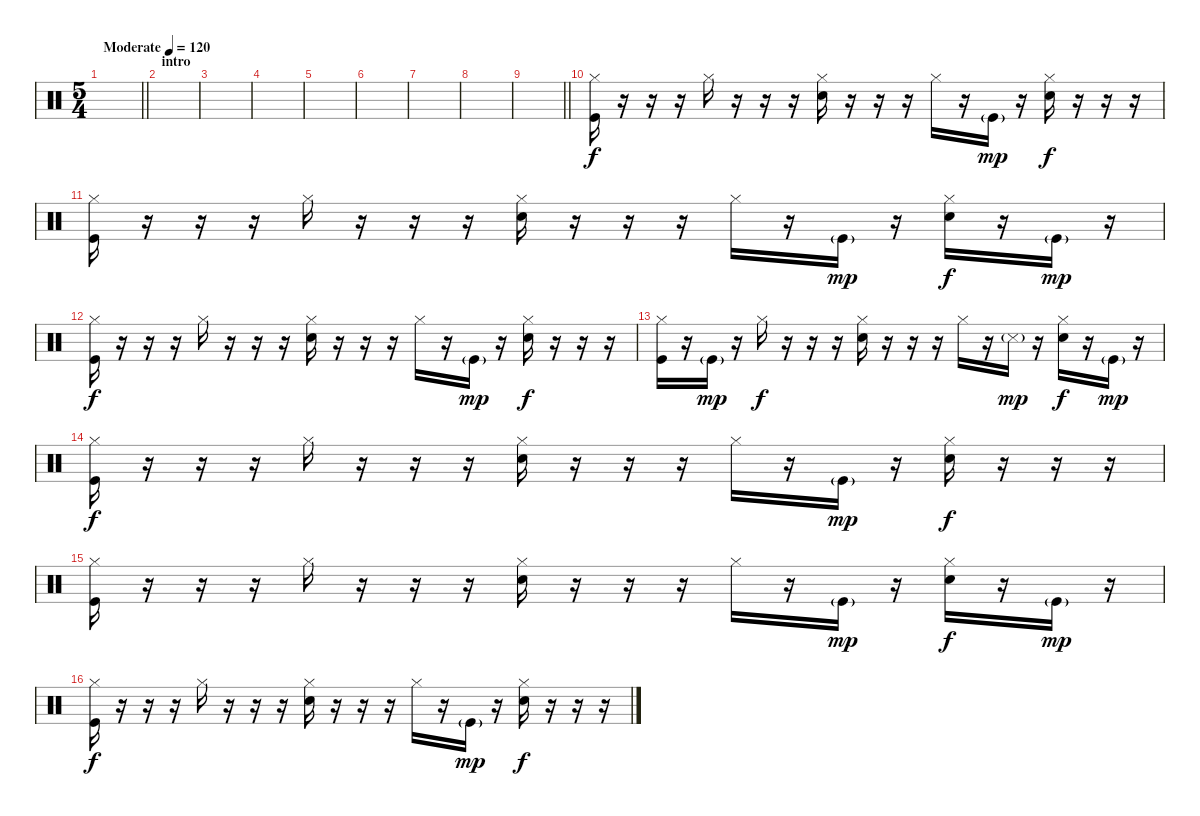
\track "" {instrument percussion}
\staff {score}
\articulation defaults
\ts (5 4)
\tempo (120 "Moderate")
\clef neutral
\barLineRight lightlight
\ks c
|
\section ("" "intro")
|
|
|
|
|
|
|
\barLineRight lightlight
|
("Kick (hit)" "Hi-Hat (closed)").16 r.16 r.16 r.16 "Hi-Hat (closed)".16 r.16 r.16 r.16 ("Snare (hit) 2" "Hi-Hat (closed)").16 r.16 r.16 r.16 "Hi-Hat (closed)".16 r.16 "Kick (hit)"{g}.16{dy mp} r.16 ("Snare (hit) 2" "Hi-Hat (closed)").16{dy f} r.16 r.16 r.16 |
("Kick (hit)" "Hi-Hat (closed)").16 r.16 r.16 r.16 "Hi-Hat (closed)".16 r.16 r.16 r.16 ("Snare (hit) 2" "Hi-Hat (closed)").16 r.16 r.16 r.16 "Hi-Hat (closed)".16 r.16 "Kick (hit)"{g}.16{dy mp} r.16 ("Snare (hit) 2" "Hi-Hat (closed)").16{dy f} r.16 "Kick (hit)"{g}.16{dy mp} r.16 |
("Kick (hit)" "Hi-Hat (closed)").16{dy f} r.16 r.16 r.16 "Hi-Hat (closed)".16 r.16 r.16 r.16 ("Snare (hit) 2" "Hi-Hat (closed)").16 r.16 r.16 r.16 "Hi-Hat (closed)".16 r.16 "Kick (hit)"{g}.16{dy mp} r.16 ("Snare (hit) 2" "Hi-Hat (closed)").16{dy f} r.16 r.16 r.16 |
("Kick (hit)" "Hi-Hat (closed)").16 r.16 "Kick (hit)"{g}.16{dy mp} r.16 "Hi-Hat (closed)".16{dy f} r.16 r.16 r.16 ("Snare (hit) 2" "Hi-Hat (closed)").16 r.16 r.16 r.16 "Hi-Hat (closed)".16 r.16 "Snare (side stick) 3"{g}.16{dy mp} r.16 ("Snare (hit) 2" "Hi-Hat (closed)").16{dy f} r.16 "Kick (hit)"{g}.16{dy mp} r.16 |
("Kick (hit)" "Hi-Hat (closed)").16{dy f} r.16 r.16 r.16 "Hi-Hat (closed)".16 r.16 r.16 r.16 ("Snare (hit) 2" "Hi-Hat (closed)").16 r.16 r.16 r.16 "Hi-Hat (closed)".16 r.16 "Kick (hit)"{g}.16{dy mp} r.16 ("Snare (hit) 2" "Hi-Hat (closed)").16{dy f} r.16 r.16 r.16 |
("Kick (hit)" "Hi-Hat (closed)").16 r.16 r.16 r.16 "Hi-Hat (closed)".16 r.16 r.16 r.16 ("Snare (hit) 2" "Hi-Hat (closed)").16 r.16 r.16 r.16 "Hi-Hat (closed)".16 r.16 "Kick (hit)"{g}.16{dy mp} r.16 ("Snare (hit) 2" "Hi-Hat (closed)").16{dy f} r.16 "Kick (hit)"{g}.16{dy mp} r.16 |
("Kick (hit)" "Hi-Hat (closed)").16{dy f} r.16 r.16 r.16 "Hi-Hat (closed)".16 r.16 r.16 r.16 ("Snare (hit) 2" "Hi-Hat (closed)").16 r.16 r.16 r.16 "Hi-Hat (closed)".16 r.16 "Kick (hit)"{g}.16{dy mp} r.16 ("Snare (hit) 2" "Hi-Hat (closed)").16{dy f} r.16 r.16 r.16
